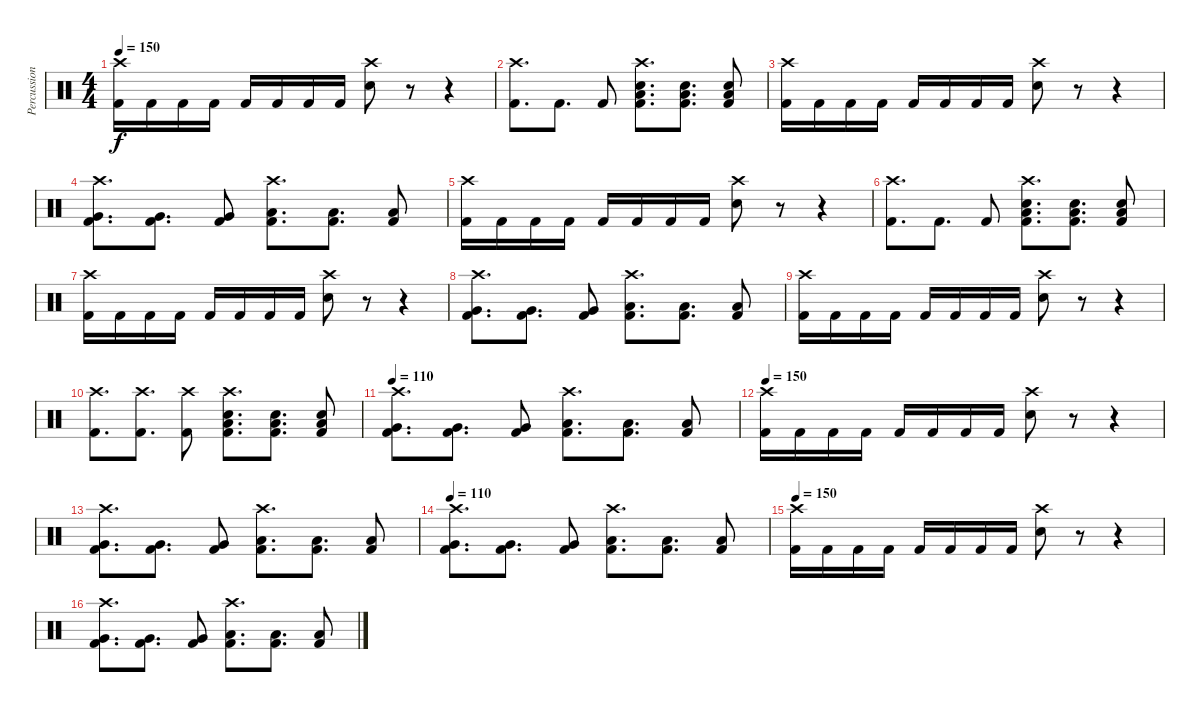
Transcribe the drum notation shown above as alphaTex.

\track ("Percussion" "Percussion") {instrument percussion}
\staff {score}
\articulation defaults
\ts (4 4)
\tempo 150
\clef neutral
\ks c
("Crash high (hit)" "Kick (hit) 2").16{dy f} "Kick (hit) 2".16 "Kick (hit) 2".16 "Kick (hit) 2".16 "Kick (hit) 2".16 "Kick (hit) 2".16 "Kick (hit) 2".16 "Kick (hit) 2".16 ("Crash high (hit)" "Electric Snare (hit)").8 r.8 r.4 |
("Crash high (hit)" "Kick (hit) 2").8{d} "Kick (hit) 2".8{d} "Kick (hit) 2".8 ("Crash high (hit)" "Electric Snare (hit)" "Low Floor Tom (hit)" "Kick (hit) 2").8{d} ("Electric Snare (hit)" "Low Floor Tom (hit)" "Kick (hit) 2").8{d} ("Electric Snare (hit)" "Low Floor Tom (hit)" "Kick (hit) 2").8 |
("Crash high (hit)" "Kick (hit) 2").16 "Kick (hit) 2".16 "Kick (hit) 2".16 "Kick (hit) 2".16 "Kick (hit) 2".16 "Kick (hit) 2".16 "Kick (hit) 2".16 "Kick (hit) 2".16 ("Crash high (hit)" "Electric Snare (hit)").8 r.8 r.4 |
("Crash high (hit)" "Very Low Tom (hit)" "Kick (hit) 2").8{d} ("Very Low Tom (hit)" "Kick (hit) 2").8{d} ("Very Low Tom (hit)" "Kick (hit) 2").8 ("Crash high (hit)" "Low Floor Tom (hit)" "Kick (hit) 2").8{d} ("Low Floor Tom (hit)" "Kick (hit) 2").8{d} ("Low Floor Tom (hit)" "Kick (hit) 2").8 |
("Crash high (hit)" "Kick (hit) 2").16 "Kick (hit) 2".16 "Kick (hit) 2".16 "Kick (hit) 2".16 "Kick (hit) 2".16 "Kick (hit) 2".16 "Kick (hit) 2".16 "Kick (hit) 2".16 ("Crash high (hit)" "Electric Snare (hit)").8 r.8 r.4 |
("Crash high (hit)" "Kick (hit) 2").8{d} "Kick (hit) 2".8{d} "Kick (hit) 2".8 ("Crash high (hit)" "Electric Snare (hit)" "Low Floor Tom (hit)" "Kick (hit) 2").8{d} ("Electric Snare (hit)" "Low Floor Tom (hit)" "Kick (hit) 2").8{d} ("Electric Snare (hit)" "Low Floor Tom (hit)" "Kick (hit) 2").8 |
("Crash high (hit)" "Kick (hit) 2").16 "Kick (hit) 2".16 "Kick (hit) 2".16 "Kick (hit) 2".16 "Kick (hit) 2".16 "Kick (hit) 2".16 "Kick (hit) 2".16 "Kick (hit) 2".16 ("Crash high (hit)" "Electric Snare (hit)").8 r.8 r.4 |
("Crash high (hit)" "Very Low Tom (hit)" "Kick (hit) 2").8{d} ("Very Low Tom (hit)" "Kick (hit) 2").8{d} ("Very Low Tom (hit)" "Kick (hit) 2").8 ("Crash high (hit)" "Low Floor Tom (hit)" "Kick (hit) 2").8{d} ("Low Floor Tom (hit)" "Kick (hit) 2").8{d} ("Low Floor Tom (hit)" "Kick (hit) 2").8 |
("Crash high (hit)" "Kick (hit) 2").16 "Kick (hit) 2".16 "Kick (hit) 2".16 "Kick (hit) 2".16 "Kick (hit) 2".16 "Kick (hit) 2".16 "Kick (hit) 2".16 "Kick (hit) 2".16 ("Crash high (hit)" "Electric Snare (hit)").8 r.8 r.4 |
("Crash high (hit)" "Kick (hit) 2").8{d} ("Crash high (hit)" "Kick (hit) 2").8{d} ("Crash high (hit)" "Kick (hit) 2").8 ("Crash high (hit)" "Electric Snare (hit)" "Low Floor Tom (hit)" "Kick (hit) 2").8{d} ("Electric Snare (hit)" "Low Floor Tom (hit)" "Kick (hit) 2").8{d} ("Electric Snare (hit)" "Low Floor Tom (hit)" "Kick (hit) 2").8 |
\tempo 110
("Crash high (hit)" "Very Low Tom (hit)" "Kick (hit) 2").8{d} ("Very Low Tom (hit)" "Kick (hit) 2").8{d} ("Very Low Tom (hit)" "Kick (hit) 2").8 ("Crash high (hit)" "Low Floor Tom (hit)" "Kick (hit) 2").8{d} ("Low Floor Tom (hit)" "Kick (hit) 2").8{d} ("Low Floor Tom (hit)" "Kick (hit) 2").8 |
\tempo 150
("Crash high (hit)" "Kick (hit) 2").16 "Kick (hit) 2".16 "Kick (hit) 2".16 "Kick (hit) 2".16 "Kick (hit) 2".16 "Kick (hit) 2".16 "Kick (hit) 2".16 "Kick (hit) 2".16 ("Crash high (hit)" "Electric Snare (hit)").8 r.8 r.4 |
("Crash high (hit)" "Very Low Tom (hit)" "Kick (hit) 2").8{d} ("Very Low Tom (hit)" "Kick (hit) 2").8{d} ("Very Low Tom (hit)" "Kick (hit) 2").8 ("Crash high (hit)" "Low Floor Tom (hit)" "Kick (hit) 2").8{d} ("Low Floor Tom (hit)" "Kick (hit) 2").8{d} ("Low Floor Tom (hit)" "Kick (hit) 2").8 |
\tempo 110
("Crash high (hit)" "Very Low Tom (hit)" "Kick (hit) 2").8{d} ("Very Low Tom (hit)" "Kick (hit) 2").8{d} ("Very Low Tom (hit)" "Kick (hit) 2").8 ("Crash high (hit)" "Low Floor Tom (hit)" "Kick (hit) 2").8{d} ("Low Floor Tom (hit)" "Kick (hit) 2").8{d} ("Low Floor Tom (hit)" "Kick (hit) 2").8 |
\tempo 150
("Crash high (hit)" "Kick (hit) 2").16 "Kick (hit) 2".16 "Kick (hit) 2".16 "Kick (hit) 2".16 "Kick (hit) 2".16 "Kick (hit) 2".16 "Kick (hit) 2".16 "Kick (hit) 2".16 ("Crash high (hit)" "Electric Snare (hit)").8 r.8 r.4 |
("Crash high (hit)" "Very Low Tom (hit)" "Kick (hit) 2").8{d} ("Very Low Tom (hit)" "Kick (hit) 2").8{d} ("Very Low Tom (hit)" "Kick (hit) 2").8 ("Crash high (hit)" "Low Floor Tom (hit)" "Kick (hit) 2").8{d} ("Low Floor Tom (hit)" "Kick (hit) 2").8{d} ("Low Floor Tom (hit)" "Kick (hit) 2").8
